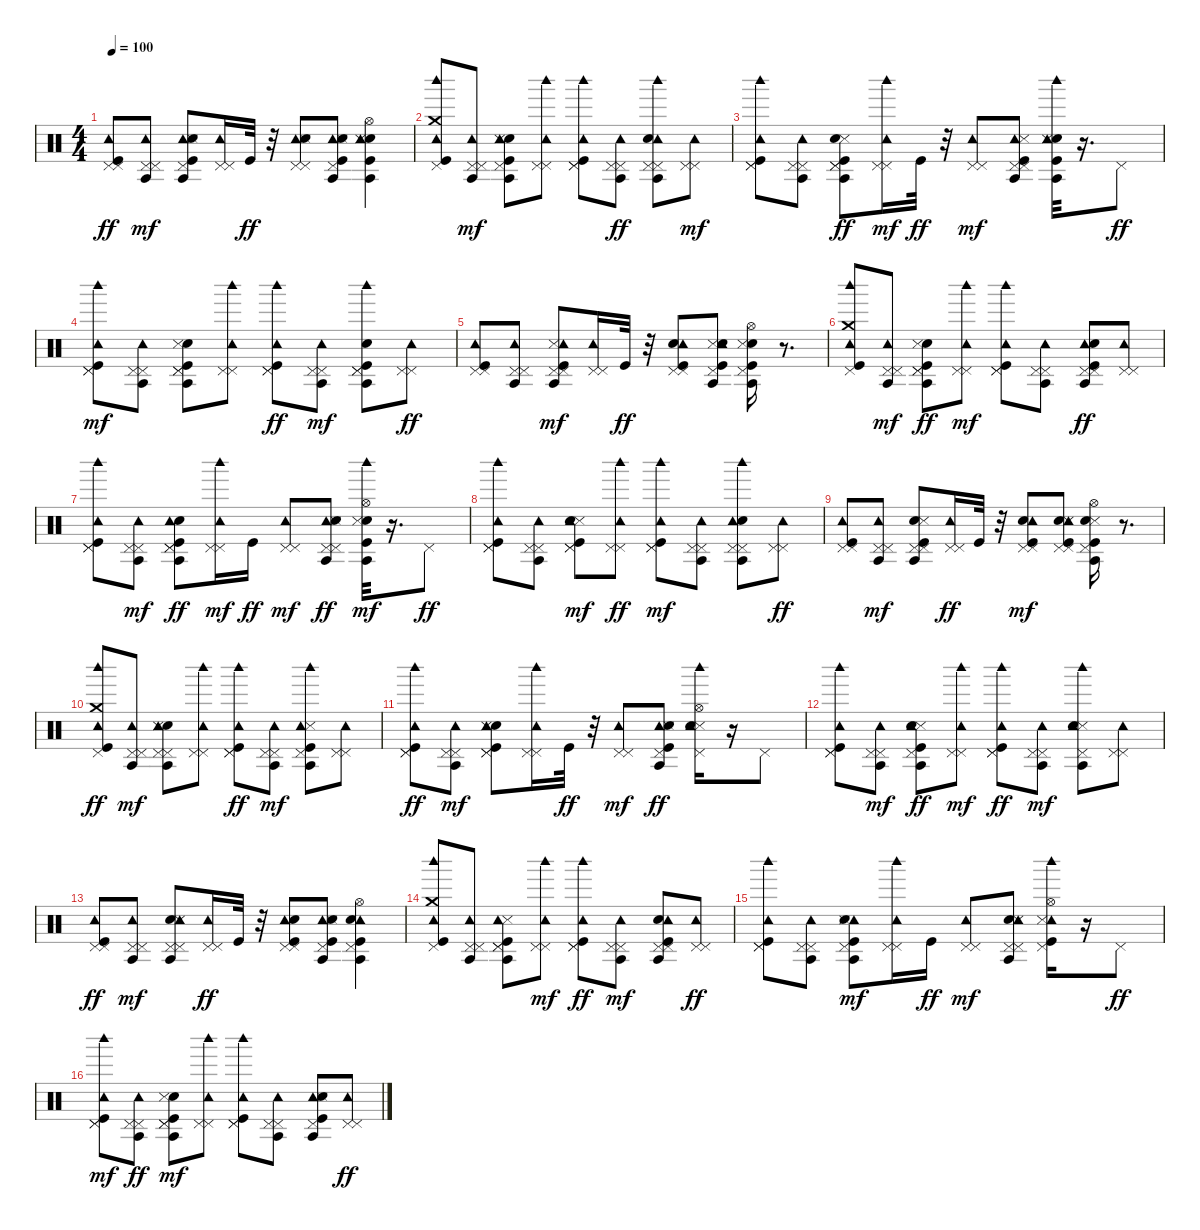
\track "" {instrument percussion}
\staff {score}
\articulation defaults
\ts (4 4)
\tempo 100
\clef neutral
\ks c
("Pedal Hi-Hat (hit)" "Pedal Hi-Hat (hit)" "Tambourine (hit)" "Kick (hit)").8{dy ff} ("Pedal Hi-Hat (hit)" "Pedal Hi-Hat (hit)" "Agogo tow (hit)" "Tambourine (hit)").8{dy mf} ("Kick (hit)" "Tambourine (hit)" "Agogo tow (hit)" "Snare (hit) 2" "Snare (side stick) 3" "Pedal Hi-Hat (hit)").8 ("Pedal Hi-Hat (hit)" "Tambourine (hit)" "Pedal Hi-Hat (hit)").16 "Kick (hit)".32{dy ff} r.32 ("Tambourine (hit)" "Pedal Hi-Hat (hit)" "Snare (hit) 2" "Pedal Hi-Hat (hit)" "Snare (side stick) 3").8 ("Tambourine (hit)" "Pedal Hi-Hat (hit)" "Snare (hit) 2" "Agogo tow (hit)" "Snare (side stick) 3" "Kick (hit)").8 ("Agogo tow (hit)" "Snare (hit) 2" "Tambourine (hit)" "Hi-Hat (open)" "Snare (side stick) 3" "Kick (hit)").4 |
("Woodblock high (hit)" "Crash medium (hit)" "Tambourine (hit)" "Pedal Hi-Hat (hit)" "Kick (hit)").8 ("Pedal Hi-Hat (hit)" "Pedal Hi-Hat (hit)" "Tambourine (hit)" "Agogo tow (hit)").8{dy mf} ("Snare (hit) 2" "Tambourine (hit)" "Kick (hit)" "Agogo tow (hit)" "Pedal Hi-Hat (hit)" "Snare (side stick) 3").8 ("Tambourine (hit)" "Pedal Hi-Hat (hit)" "Woodblock high (hit)" "Pedal Hi-Hat (hit)").8 ("Pedal Hi-Hat (hit)" "Kick (hit)" "Woodblock high (hit)" "Pedal Hi-Hat (hit)" "Tambourine (hit)").8 ("Agogo tow (hit)" "Tambourine (hit)" "Pedal Hi-Hat (hit)" "Pedal Hi-Hat (hit)").8{dy ff} ("Agogo tow (hit)" "Woodblock high (hit)" "Pedal Hi-Hat (hit)" "Pedal Hi-Hat (hit)" "Tambourine (hit)" "Snare (hit) 2").8 ("Pedal Hi-Hat (hit)" "Pedal Hi-Hat (hit)" "Tambourine (hit)").8{dy mf} |
("Pedal Hi-Hat (hit)" "Kick (hit)" "Tambourine (hit)" "Pedal Hi-Hat (hit)" "Woodblock high (hit)").8 ("Agogo tow (hit)" "Pedal Hi-Hat (hit)" "Pedal Hi-Hat (hit)" "Tambourine (hit)").8 ("Kick (hit)" "Agogo tow (hit)" "Snare (side stick) 3" "Snare (hit) 2" "Pedal Hi-Hat (hit)" "Pedal Hi-Hat (hit)").8{dy ff} ("Woodblock high (hit)" "Pedal Hi-Hat (hit)" "Tambourine (hit)" "Pedal Hi-Hat (hit)").16{dy mf} "Kick (hit)".32{dy ff} r.32 ("Tambourine (hit)" "Pedal Hi-Hat (hit)" "Pedal Hi-Hat (hit)").8{dy mf} ("Agogo tow (hit)" "Kick (hit)" "Pedal Hi-Hat (hit)" "Pedal Hi-Hat (hit)" "Tambourine (hit)" "Snare (side stick) 3").8 ("Woodblock high (hit)" "Snare (hit) 2" "Kick (hit)" "Tambourine (hit)" "Agogo tow (hit)" "Snare (side stick) 3").32 r.16{d} "Pedal Hi-Hat (hit)".8{dy ff} |
("Kick (hit)" "Tambourine (hit)" "Pedal Hi-Hat (hit)" "Woodblock high (hit)" "Pedal Hi-Hat (hit)").8{dy mf} ("Agogo tow (hit)" "Pedal Hi-Hat (hit)" "Pedal Hi-Hat (hit)" "Tambourine (hit)").8 ("Pedal Hi-Hat (hit)" "Kick (hit)" "Agogo tow (hit)" "Pedal Hi-Hat (hit)" "Snare (hit) 2" "Snare (side stick) 3").8 ("Pedal Hi-Hat (hit)" "Pedal Hi-Hat (hit)" "Tambourine (hit)" "Woodblock high (hit)").8 ("Woodblock high (hit)" "Tambourine (hit)" "Kick (hit)" "Pedal Hi-Hat (hit)" "Pedal Hi-Hat (hit)").8{dy ff} ("Agogo tow (hit)" "Pedal Hi-Hat (hit)" "Tambourine (hit)" "Pedal Hi-Hat (hit)").8{dy mf} ("Kick (hit)" "Pedal Hi-Hat (hit)" "Pedal Hi-Hat (hit)" "Woodblock high (hit)" "Snare (hit) 2" "Agogo tow (hit)").8 ("Tambourine (hit)" "Pedal Hi-Hat (hit)" "Pedal Hi-Hat (hit)").8{dy ff} |
("Tambourine (hit)" "Pedal Hi-Hat (hit)" "Pedal Hi-Hat (hit)" "Kick (hit)").8 ("Tambourine (hit)" "Pedal Hi-Hat (hit)" "Agogo tow (hit)" "Pedal Hi-Hat (hit)").8 ("Pedal Hi-Hat (hit)" "Kick (hit)" "Snare (side stick) 3" "Tambourine (hit)" "Agogo tow (hit)" "Pedal Hi-Hat (hit)").8{dy mf} ("Pedal Hi-Hat (hit)" "Pedal Hi-Hat (hit)" "Tambourine (hit)").16 "Kick (hit)".32{dy ff} r.32 ("Snare (hit) 2" "Pedal Hi-Hat (hit)" "Pedal Hi-Hat (hit)" "Tambourine (hit)" "Kick (hit)").8 ("Snare (side stick) 3" "Pedal Hi-Hat (hit)" "Tambourine (hit)" "Kick (hit)" "Agogo tow (hit)" "Snare (hit) 2").8 ("Hi-Hat (open)" "Pedal Hi-Hat (hit)" "Agogo tow (hit)" "Snare (hit) 2" "Snare (side stick) 3" "Kick (hit)").16 r.8{d} |
("Crash medium (hit)" "Pedal Hi-Hat (hit)" "Woodblock high (hit)" "Kick (hit)" "Tambourine (hit)").8 ("Tambourine (hit)" "Pedal Hi-Hat (hit)" "Pedal Hi-Hat (hit)" "Agogo tow (hit)").8{dy mf} ("Agogo tow (hit)" "Snare (hit) 2" "Pedal Hi-Hat (hit)" "Pedal Hi-Hat (hit)" "Snare (side stick) 3" "Kick (hit)").8{dy ff} ("Woodblock high (hit)" "Pedal Hi-Hat (hit)" "Pedal Hi-Hat (hit)" "Tambourine (hit)").8{dy mf} ("Kick (hit)" "Tambourine (hit)" "Pedal Hi-Hat (hit)" "Pedal Hi-Hat (hit)" "Woodblock high (hit)").8 ("Agogo tow (hit)" "Pedal Hi-Hat (hit)" "Pedal Hi-Hat (hit)" "Tambourine (hit)").8 ("Agogo tow (hit)" "Pedal Hi-Hat (hit)" "Tambourine (hit)" "Snare (hit) 2" "Kick (hit)" "Pedal Hi-Hat (hit)").8{dy ff} ("Tambourine (hit)" "Pedal Hi-Hat (hit)" "Pedal Hi-Hat (hit)").8 |
("Woodblock high (hit)" "Kick (hit)" "Pedal Hi-Hat (hit)" "Pedal Hi-Hat (hit)" "Tambourine (hit)").8 ("Pedal Hi-Hat (hit)" "Tambourine (hit)" "Pedal Hi-Hat (hit)" "Agogo tow (hit)").8{dy mf} ("Snare (hit) 2" "Agogo tow (hit)" "Pedal Hi-Hat (hit)" "Tambourine (hit)" "Kick (hit)" "Pedal Hi-Hat (hit)").8{dy ff} ("Woodblock high (hit)" "Pedal Hi-Hat (hit)" "Pedal Hi-Hat (hit)" "Tambourine (hit)").16{dy mf} "Kick (hit)".16{dy ff} ("Pedal Hi-Hat (hit)" "Tambourine (hit)" "Pedal Hi-Hat (hit)").8{dy mf} ("Pedal Hi-Hat (hit)" "Tambourine (hit)" "Agogo tow (hit)" "Snare (side stick) 3" "Pedal Hi-Hat (hit)" "Snare (hit) 2").8{dy ff} ("Hi-Hat (open)" "Kick (hit)" "Woodblock high (hit)" "Snare (hit) 2" "Snare (side stick) 3" "Agogo tow (hit)").32{dy mf} r.16{d} "Pedal Hi-Hat (hit)".8{dy ff} |
("Pedal Hi-Hat (hit)" "Woodblock high (hit)" "Tambourine (hit)" "Pedal Hi-Hat (hit)" "Kick (hit)").8 ("Agogo tow (hit)" "Pedal Hi-Hat (hit)" "Tambourine (hit)" "Pedal Hi-Hat (hit)").8 ("Snare (side stick) 3" "Snare (hit) 2" "Kick (hit)" "Tambourine (hit)" "Pedal Hi-Hat (hit)" "Pedal Hi-Hat (hit)").8{dy mf} ("Woodblock high (hit)" "Tambourine (hit)" "Pedal Hi-Hat (hit)" "Pedal Hi-Hat (hit)").8{dy ff} ("Tambourine (hit)" "Kick (hit)" "Woodblock high (hit)" "Pedal Hi-Hat (hit)" "Pedal Hi-Hat (hit)").8{dy mf} ("Pedal Hi-Hat (hit)" "Tambourine (hit)" "Pedal Hi-Hat (hit)" "Agogo tow (hit)").8 ("Snare (hit) 2" "Woodblock high (hit)" "Pedal Hi-Hat (hit)" "Pedal Hi-Hat (hit)" "Tambourine (hit)" "Agogo tow (hit)").8 ("Pedal Hi-Hat (hit)" "Tambourine (hit)" "Pedal Hi-Hat (hit)").8{dy ff} |
("Pedal Hi-Hat (hit)" "Kick (hit)" "Tambourine (hit)" "Pedal Hi-Hat (hit)").8 ("Agogo tow (hit)" "Pedal Hi-Hat (hit)" "Pedal Hi-Hat (hit)" "Tambourine (hit)").8{dy mf} ("Kick (hit)" "Agogo tow (hit)" "Pedal Hi-Hat (hit)" "Pedal Hi-Hat (hit)" "Snare (hit) 2" "Snare (side stick) 3").8 ("Pedal Hi-Hat (hit)" "Tambourine (hit)" "Pedal Hi-Hat (hit)").16{dy ff} "Kick (hit)".32 r.32 ("Pedal Hi-Hat (hit)" "Snare (hit) 2" "Kick (hit)" "Pedal Hi-Hat (hit)" "Tambourine (hit)").8{dy mf} ("Snare (hit) 2" "Kick (hit)" "Snare (side stick) 3" "Pedal Hi-Hat (hit)" "Pedal Hi-Hat (hit)" "Tambourine (hit)").8 ("Snare (side stick) 3" "Kick (hit)" "Hi-Hat (open)" "Snare (hit) 2" "Pedal Hi-Hat (hit)" "Agogo tow (hit)").16 r.8{d} |
("Woodblock high (hit)" "Pedal Hi-Hat (hit)" "Tambourine (hit)" "Kick (hit)" "Crash medium (hit)").8{dy ff} ("Pedal Hi-Hat (hit)" "Tambourine (hit)" "Agogo tow (hit)" "Pedal Hi-Hat (hit)").8{dy mf} ("Snare (hit) 2" "Snare (side stick) 3" "Pedal Hi-Hat (hit)" "Agogo tow (hit)" "Tambourine (hit)" "Pedal Hi-Hat (hit)").8 ("Pedal Hi-Hat (hit)" "Tambourine (hit)" "Woodblock high (hit)" "Pedal Hi-Hat (hit)").8 ("Pedal Hi-Hat (hit)" "Tambourine (hit)" "Woodblock high (hit)" "Kick (hit)" "Pedal Hi-Hat (hit)").8{dy ff} ("Pedal Hi-Hat (hit)" "Pedal Hi-Hat (hit)" "Tambourine (hit)" "Agogo tow (hit)").8{dy mf} ("Kick (hit)" "Snare (side stick) 3" "Pedal Hi-Hat (hit)" "Agogo tow (hit)" "Tambourine (hit)" "Woodblock high (hit)").8 ("Pedal Hi-Hat (hit)" "Tambourine (hit)" "Pedal Hi-Hat (hit)").8 |
("Woodblock high (hit)" "Tambourine (hit)" "Kick (hit)" "Pedal Hi-Hat (hit)" "Pedal Hi-Hat (hit)").8{dy ff} ("Agogo tow (hit)" "Pedal Hi-Hat (hit)" "Tambourine (hit)" "Pedal Hi-Hat (hit)").8{dy mf} ("Pedal Hi-Hat (hit)" "Snare (hit) 2" "Snare (side stick) 3" "Kick (hit)" "Tambourine (hit)" "Pedal Hi-Hat (hit)").8 ("Pedal Hi-Hat (hit)" "Pedal Hi-Hat (hit)" "Woodblock high (hit)" "Tambourine (hit)").16 "Kick (hit)".32{dy ff} r.32 ("Pedal Hi-Hat (hit)" "Pedal Hi-Hat (hit)" "Tambourine (hit)").8{dy mf} ("Kick (hit)" "Tambourine (hit)" "Snare (side stick) 3" "Snare (hit) 2" "Agogo tow (hit)" "Pedal Hi-Hat (hit)").8{dy ff} ("Pedal Hi-Hat (hit)" "Woodblock high (hit)" "Snare (side stick) 3" "Tambourine (hit)" "Hi-Hat (open)" "Snare (hit) 2").16 r.16 "Pedal Hi-Hat (hit)".8 |
("Pedal Hi-Hat (hit)" "Pedal Hi-Hat (hit)" "Woodblock high (hit)" "Kick (hit)" "Tambourine (hit)").8 ("Pedal Hi-Hat (hit)" "Pedal Hi-Hat (hit)" "Tambourine (hit)" "Agogo tow (hit)").8{dy mf} ("Snare (side stick) 3" "Agogo tow (hit)" "Kick (hit)" "Tambourine (hit)" "Pedal Hi-Hat (hit)" "Snare (hit) 2").8{dy ff} ("Pedal Hi-Hat (hit)" "Pedal Hi-Hat (hit)" "Tambourine (hit)" "Woodblock high (hit)").8{dy mf} ("Pedal Hi-Hat (hit)" "Woodblock high (hit)" "Tambourine (hit)" "Kick (hit)" "Pedal Hi-Hat (hit)").8{dy ff} ("Tambourine (hit)" "Pedal Hi-Hat (hit)" "Pedal Hi-Hat (hit)" "Agogo tow (hit)").8{dy mf} ("Pedal Hi-Hat (hit)" "Woodblock high (hit)" "Snare (side stick) 3" "Agogo tow (hit)" "Snare (hit) 2" "Tambourine (hit)").8 ("Pedal Hi-Hat (hit)" "Tambourine (hit)" "Pedal Hi-Hat (hit)").8 |
("Kick (hit)" "Tambourine (hit)" "Pedal Hi-Hat (hit)" "Pedal Hi-Hat (hit)").8{dy ff} ("Agogo tow (hit)" "Pedal Hi-Hat (hit)" "Pedal Hi-Hat (hit)" "Tambourine (hit)").8{dy mf} ("Pedal Hi-Hat (hit)" "Snare (hit) 2" "Tambourine (hit)" "Snare (side stick) 3" "Pedal Hi-Hat (hit)" "Agogo tow (hit)").8 ("Tambourine (hit)" "Pedal Hi-Hat (hit)" "Pedal Hi-Hat (hit)").16{dy ff} "Kick (hit)".32 r.32 ("Pedal Hi-Hat (hit)" "Kick (hit)" "Tambourine (hit)" "Snare (hit) 2" "Pedal Hi-Hat (hit)").8 ("Tambourine (hit)" "Pedal Hi-Hat (hit)" "Snare (side stick) 3" "Agogo tow (hit)" "Kick (hit)" "Snare (hit) 2").8 ("Hi-Hat (open)" "Tambourine (hit)" "Agogo tow (hit)" "Kick (hit)" "Pedal Hi-Hat (hit)" "Snare (hit) 2").4 |
("Tambourine (hit)" "Woodblock high (hit)" "Pedal Hi-Hat (hit)" "Kick (hit)" "Crash medium (hit)").8 ("Agogo tow (hit)" "Tambourine (hit)" "Pedal Hi-Hat (hit)" "Pedal Hi-Hat (hit)").8 ("Pedal Hi-Hat (hit)" "Snare (side stick) 3" "Agogo tow (hit)" "Tambourine (hit)" "Pedal Hi-Hat (hit)" "Kick (hit)").8 ("Pedal Hi-Hat (hit)" "Tambourine (hit)" "Pedal Hi-Hat (hit)" "Woodblock high (hit)").8{dy mf} ("Pedal Hi-Hat (hit)" "Tambourine (hit)" "Pedal Hi-Hat (hit)" "Woodblock high (hit)" "Kick (hit)").8{dy ff} ("Agogo tow (hit)" "Pedal Hi-Hat (hit)" "Pedal Hi-Hat (hit)" "Tambourine (hit)").8{dy mf} ("Pedal Hi-Hat (hit)" "Pedal Hi-Hat (hit)" "Kick (hit)" "Snare (hit) 2" "Agogo tow (hit)" "Tambourine (hit)").8 ("Pedal Hi-Hat (hit)" "Tambourine (hit)" "Pedal Hi-Hat (hit)").8{dy ff} |
("Woodblock high (hit)" "Kick (hit)" "Pedal Hi-Hat (hit)" "Tambourine (hit)" "Pedal Hi-Hat (hit)").8 ("Pedal Hi-Hat (hit)" "Tambourine (hit)" "Agogo tow (hit)" "Pedal Hi-Hat (hit)").8 ("Tambourine (hit)" "Agogo tow (hit)" "Kick (hit)" "Snare (hit) 2" "Snare (side stick) 3" "Pedal Hi-Hat (hit)").8{dy mf} ("Pedal Hi-Hat (hit)" "Pedal Hi-Hat (hit)" "Woodblock high (hit)" "Tambourine (hit)").16 "Kick (hit)".16{dy ff} ("Tambourine (hit)" "Pedal Hi-Hat (hit)" "Pedal Hi-Hat (hit)").8{dy mf} ("Pedal Hi-Hat (hit)" "Pedal Hi-Hat (hit)" "Agogo tow (hit)" "Snare (hit) 2" "Tambourine (hit)" "Snare (side stick) 3").8 ("Hi-Hat (open)" "Pedal Hi-Hat (hit)" "Kick (hit)" "Woodblock high (hit)" "Tambourine (hit)" "Snare (side stick) 3").16 r.16 "Pedal Hi-Hat (hit)".8{dy ff} |
("Pedal Hi-Hat (hit)" "Kick (hit)" "Tambourine (hit)" "Pedal Hi-Hat (hit)" "Woodblock high (hit)").8{dy mf} ("Agogo tow (hit)" "Tambourine (hit)" "Pedal Hi-Hat (hit)" "Pedal Hi-Hat (hit)").8{dy ff} ("Kick (hit)" "Agogo tow (hit)" "Snare (hit) 2" "Snare (side stick) 3" "Pedal Hi-Hat (hit)" "Pedal Hi-Hat (hit)").8{dy mf} ("Woodblock high (hit)" "Pedal Hi-Hat (hit)" "Tambourine (hit)" "Pedal Hi-Hat (hit)").8 ("Pedal Hi-Hat (hit)" "Tambourine (hit)" "Kick (hit)" "Woodblock high (hit)" "Pedal Hi-Hat (hit)").8 ("Pedal Hi-Hat (hit)" "Tambourine (hit)" "Agogo tow (hit)" "Pedal Hi-Hat (hit)").8 ("Tambourine (hit)" "Kick (hit)" "Agogo tow (hit)" "Snare (hit) 2" "Pedal Hi-Hat (hit)" "Snare (side stick) 3").8 ("Tambourine (hit)" "Pedal Hi-Hat (hit)" "Pedal Hi-Hat (hit)").8{dy ff}
